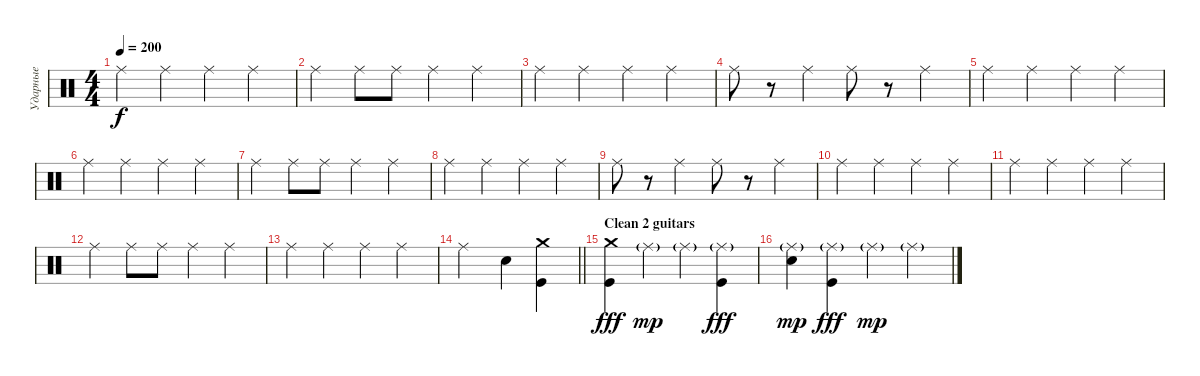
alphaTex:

\track ("Ударные" "Ударные") {instrument percussion}
\staff {score}
\articulation defaults
\ts (4 4)
\tempo 200
\clef neutral
\ks c "Ride (middle)".4{dy f} "Ride (middle)".4 "Ride (middle)".4 "Ride (middle)".4
|
"Ride (middle)".4 "Ride (middle)".8 "Ride (middle)".8 "Ride (middle)".4 "Ride (middle)".4 |
"Ride (middle)".4 "Ride (middle)".4 "Ride (middle)".4 "Ride (middle)".4 |
"Ride (middle)".8 r.8 "Ride (middle)".4 "Ride (middle)".8 r.8 "Ride (middle)".4 |
"Ride (middle)".4{volume 11} "Ride (middle)".4 "Ride (middle)".4 "Ride (middle)".4 |
"Ride (middle)".4 "Ride (middle)".4 "Ride (middle)".4 "Ride (middle)".4 |
"Ride (middle)".4 "Ride (middle)".8 "Ride (middle)".8 "Ride (middle)".4 "Ride (middle)".4 |
"Ride (middle)".4 "Ride (middle)".4 "Ride (middle)".4 "Ride (middle)".4 |
"Ride (middle)".8 r.8 "Ride (middle)".4 "Ride (middle)".8 r.8 "Ride (middle)".4 |
"Ride (middle)".4{volume 11} "Ride (middle)".4 "Ride (middle)".4 "Ride (middle)".4 |
"Ride (middle)".4 "Ride (middle)".4 "Ride (middle)".4 "Ride (middle)".4 |
"Ride (middle)".4 "Ride (middle)".8 "Ride (middle)".8 "Ride (middle)".4 "Ride (middle)".4 |
"Ride (middle)".4 "Ride (middle)".4 "Ride (middle)".4 "Ride (middle)".4 |
\barLineRight lightlight "Ride (middle)".2 "Electric Snare (hit)".4
("Crash medium (hit)" "Kick (hit)").4 |
\section ("" "Clean 2 guitars")
("Crash medium (hit)" "Kick (hit)").4{dy fff volume 13} "Ride (middle)"{g}.4{dy mp} "Ride (middle)"{g}.4 ("Ride (middle)"{g} "Kick (hit)").4{dy fff} |
("Ride (middle)"{g} "Electric Snare (hit)").4{dy mp} ("Ride (middle)"{g} "Kick (hit)").4{dy fff} "Ride (middle)"{g}.4{dy mp} "Ride (middle)"{g}.4
